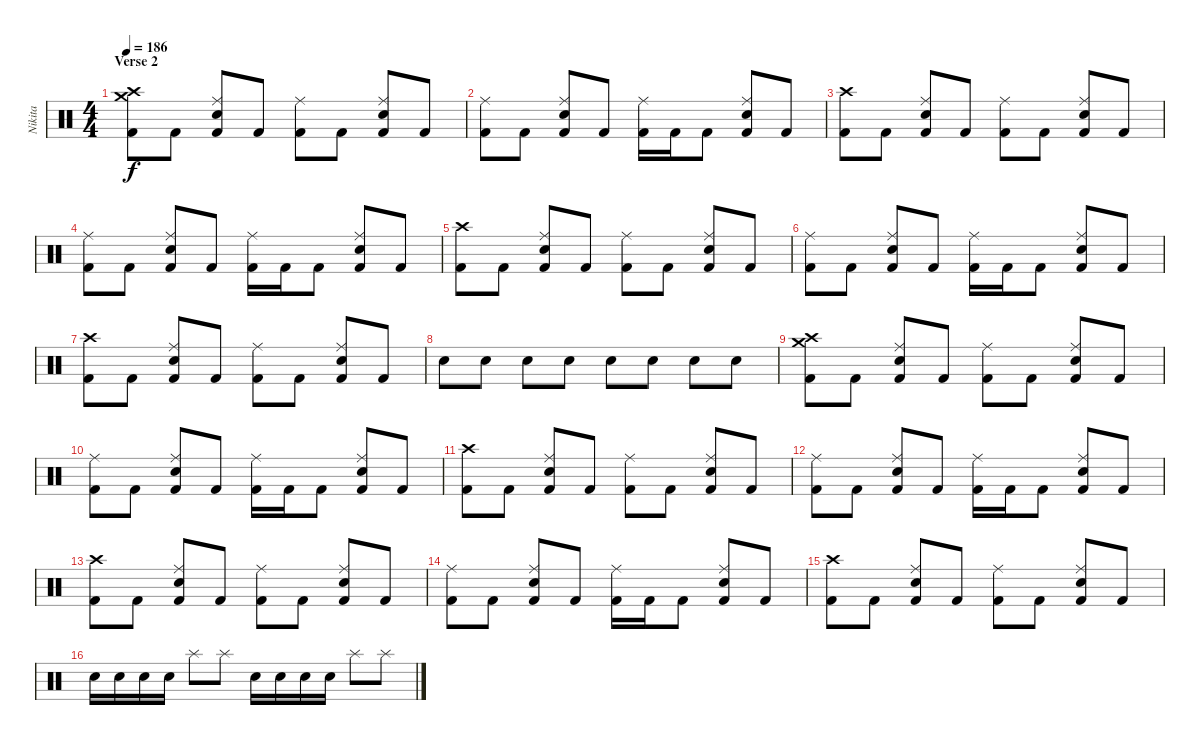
\track ("Nikita" "Nikita") {instrument percussion}
\staff {score}
\articulation defaults
\ts (4 4)
\section ("" "Verse 2")
\tempo 186
\clef neutral
\ks c
("Crash high (hit)" "Crash medium (hit)" "Kick (hit) 2").8{dy f} "Kick (hit) 2".8 ("Ride (middle)" "Electric Snare (hit)" "Kick (hit) 2").8 "Kick (hit) 2".8 ("Ride (middle)" "Kick (hit) 2").8 "Kick (hit) 2".8 ("Ride (middle)" "Electric Snare (hit)" "Kick (hit) 2").8 "Kick (hit) 2".8 |
("Ride (middle)" "Kick (hit) 2").8 "Kick (hit) 2".8 ("Ride (middle)" "Electric Snare (hit)" "Kick (hit) 2").8 "Kick (hit) 2".8 ("Ride (middle)" "Kick (hit) 2").16 "Kick (hit) 2".16 "Kick (hit) 2".8 ("Ride (middle)" "Electric Snare (hit)" "Kick (hit) 2").8 "Kick (hit) 2".8 |
("Crash high (hit)" "Kick (hit) 2").8 "Kick (hit) 2".8 ("Ride (middle)" "Electric Snare (hit)" "Kick (hit) 2").8 "Kick (hit) 2".8 ("Ride (middle)" "Kick (hit) 2").8 "Kick (hit) 2".8 ("Ride (middle)" "Electric Snare (hit)" "Kick (hit) 2").8 "Kick (hit) 2".8 |
("Ride (middle)" "Kick (hit) 2").8 "Kick (hit) 2".8 ("Ride (middle)" "Electric Snare (hit)" "Kick (hit) 2").8 "Kick (hit) 2".8 ("Ride (middle)" "Kick (hit) 2").16 "Kick (hit) 2".16 "Kick (hit) 2".8 ("Ride (middle)" "Electric Snare (hit)" "Kick (hit) 2").8 "Kick (hit) 2".8 |
("Crash high (hit)" "Kick (hit) 2").8 "Kick (hit) 2".8 ("Ride (middle)" "Electric Snare (hit)" "Kick (hit) 2").8 "Kick (hit) 2".8 ("Ride (middle)" "Kick (hit) 2").8 "Kick (hit) 2".8 ("Ride (middle)" "Electric Snare (hit)" "Kick (hit) 2").8 "Kick (hit) 2".8 |
("Ride (middle)" "Kick (hit) 2").8 "Kick (hit) 2".8 ("Ride (middle)" "Electric Snare (hit)" "Kick (hit) 2").8 "Kick (hit) 2".8 ("Ride (middle)" "Kick (hit) 2").16 "Kick (hit) 2".16 "Kick (hit) 2".8 ("Ride (middle)" "Electric Snare (hit)" "Kick (hit) 2").8 "Kick (hit) 2".8 |
("Crash high (hit)" "Kick (hit) 2").8 "Kick (hit) 2".8 ("Ride (middle)" "Electric Snare (hit)" "Kick (hit) 2").8 "Kick (hit) 2".8 ("Ride (middle)" "Kick (hit) 2").8 "Kick (hit) 2".8 ("Ride (middle)" "Electric Snare (hit)" "Kick (hit) 2").8 "Kick (hit) 2".8 |
"Electric Snare (hit)".8 "Electric Snare (hit)".8 "Electric Snare (hit)".8 "Electric Snare (hit)".8 "Electric Snare (hit)".8 "Electric Snare (hit)".8 "Electric Snare (hit)".8 "Electric Snare (hit)".8 |
("Crash high (hit)" "Crash medium (hit)" "Kick (hit) 2").8 "Kick (hit) 2".8 ("Ride (middle)" "Electric Snare (hit)" "Kick (hit) 2").8 "Kick (hit) 2".8 ("Ride (middle)" "Kick (hit) 2").8 "Kick (hit) 2".8 ("Ride (middle)" "Electric Snare (hit)" "Kick (hit) 2").8 "Kick (hit) 2".8 |
("Ride (middle)" "Kick (hit) 2").8 "Kick (hit) 2".8 ("Ride (middle)" "Electric Snare (hit)" "Kick (hit) 2").8 "Kick (hit) 2".8 ("Ride (middle)" "Kick (hit) 2").16 "Kick (hit) 2".16 "Kick (hit) 2".8 ("Ride (middle)" "Electric Snare (hit)" "Kick (hit) 2").8 "Kick (hit) 2".8 |
("Crash high (hit)" "Kick (hit) 2").8 "Kick (hit) 2".8 ("Ride (middle)" "Electric Snare (hit)" "Kick (hit) 2").8 "Kick (hit) 2".8 ("Ride (middle)" "Kick (hit) 2").8 "Kick (hit) 2".8 ("Ride (middle)" "Electric Snare (hit)" "Kick (hit) 2").8 "Kick (hit) 2".8 |
("Ride (middle)" "Kick (hit) 2").8 "Kick (hit) 2".8 ("Ride (middle)" "Electric Snare (hit)" "Kick (hit) 2").8 "Kick (hit) 2".8 ("Ride (middle)" "Kick (hit) 2").16 "Kick (hit) 2".16 "Kick (hit) 2".8 ("Ride (middle)" "Electric Snare (hit)" "Kick (hit) 2").8 "Kick (hit) 2".8 |
("Crash high (hit)" "Kick (hit) 2").8 "Kick (hit) 2".8 ("Ride (middle)" "Electric Snare (hit)" "Kick (hit) 2").8 "Kick (hit) 2".8 ("Ride (middle)" "Kick (hit) 2").8 "Kick (hit) 2".8 ("Ride (middle)" "Electric Snare (hit)" "Kick (hit) 2").8 "Kick (hit) 2".8 |
("Ride (middle)" "Kick (hit) 2").8 "Kick (hit) 2".8 ("Ride (middle)" "Electric Snare (hit)" "Kick (hit) 2").8 "Kick (hit) 2".8 ("Ride (middle)" "Kick (hit) 2").16 "Kick (hit) 2".16 "Kick (hit) 2".8 ("Ride (middle)" "Electric Snare (hit)" "Kick (hit) 2").8 "Kick (hit) 2".8 |
("Crash high (hit)" "Kick (hit) 2").8 "Kick (hit) 2".8 ("Ride (middle)" "Electric Snare (hit)" "Kick (hit) 2").8 "Kick (hit) 2".8 ("Ride (middle)" "Kick (hit) 2").8 "Kick (hit) 2".8 ("Ride (middle)" "Electric Snare (hit)" "Kick (hit) 2").8 "Kick (hit) 2".8 |
"Electric Snare (hit)".16 "Electric Snare (hit)".16 "Electric Snare (hit)".16 "Electric Snare (hit)".16 "Splash (hit)".8 "Splash (hit)".8 "Electric Snare (hit)".16 "Electric Snare (hit)".16 "Electric Snare (hit)".16 "Electric Snare (hit)".16 "Splash (hit)".8 "Splash (hit)".8
